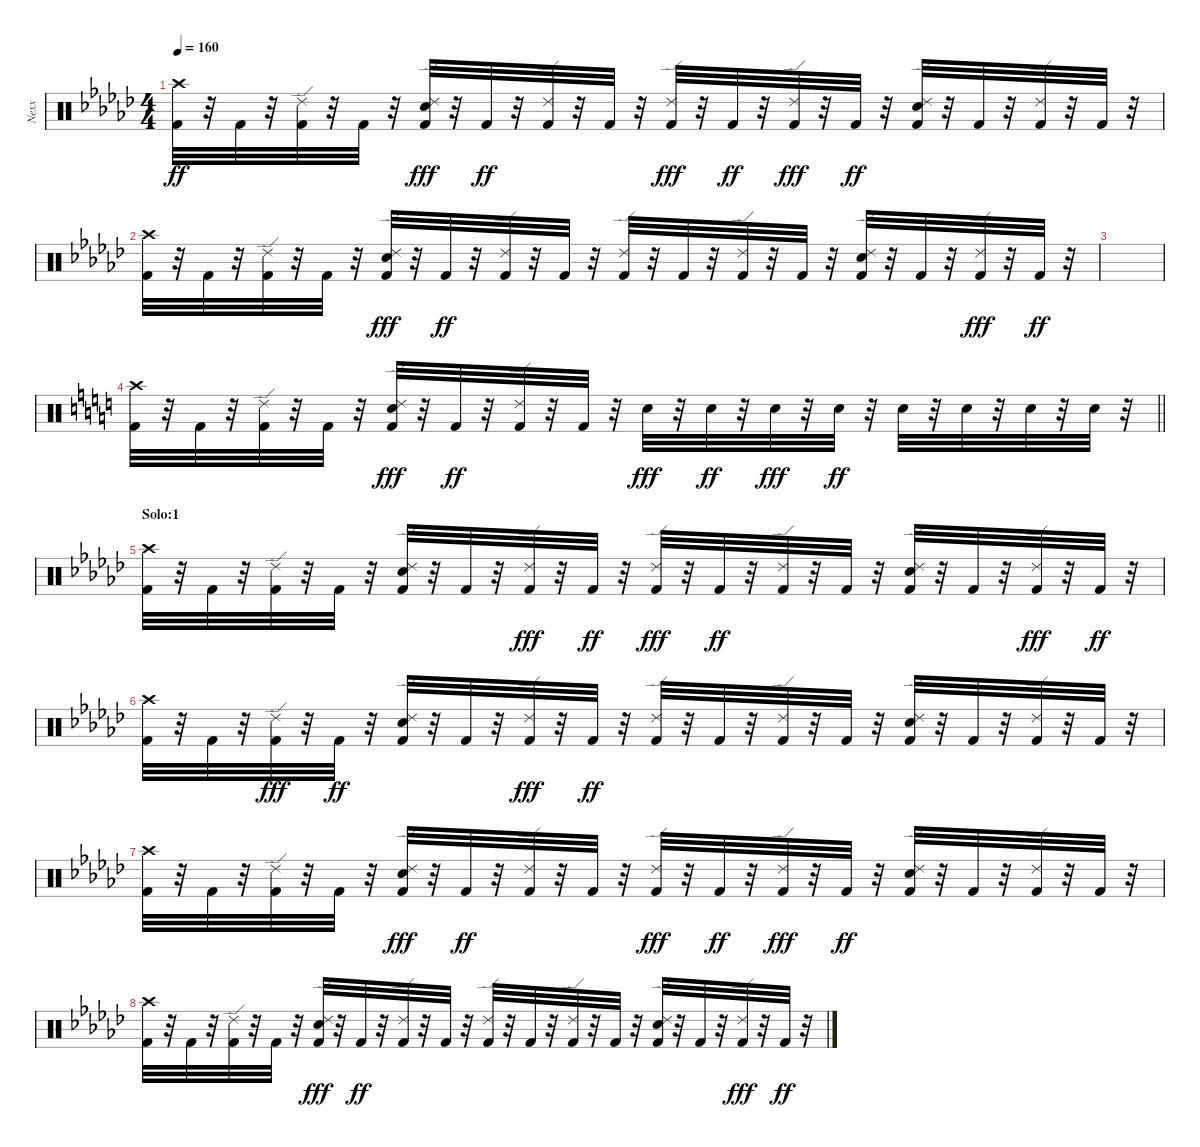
\track ("Nexx" "Nexx") {instrument percussion}
\staff {score}
\articulation defaults
\ts (4 4)
\tempo 160
\clef neutral
\ks ebminor
("Crash high (hit)" "Kick (hit) 2").32{dy ff} r.32 "Kick (hit) 2".32 r.32 ("Ride (edge) 2" "Kick (hit) 2").32 r.32 "Kick (hit) 2".32 r.32 ("Kick (hit) 2" "Electric Snare (hit)" "Ride (edge) 2").32{dy fff} r.32 "Kick (hit) 2".32{dy ff} r.32 ("Ride (edge) 2" "Kick (hit) 2").32 r.32 "Kick (hit) 2".32 r.32 ("Kick (hit) 2" "Ride (edge) 2").32{dy fff} r.32 "Kick (hit) 2".32{dy ff} r.32 ("Kick (hit) 2" "Ride (edge) 2").32{dy fff} r.32 "Kick (hit) 2".32{dy ff} r.32 ("Ride (edge) 2" "Electric Snare (hit)" "Kick (hit) 2").32 r.32 "Kick (hit) 2".32 r.32 ("Ride (edge) 2" "Kick (hit) 2").32 r.32 "Kick (hit) 2".32 r.32 |
("Kick (hit) 2" "Crash high (hit)").32 r.32 "Kick (hit) 2".32 r.32 ("Ride (edge) 2" "Kick (hit) 2").32 r.32 "Kick (hit) 2".32 r.32 ("Electric Snare (hit)" "Kick (hit) 2" "Ride (edge) 2").32{dy fff} r.32 "Kick (hit) 2".32{dy ff} r.32 ("Ride (edge) 2" "Kick (hit) 2").32 r.32 "Kick (hit) 2".32 r.32 ("Ride (edge) 2" "Kick (hit) 2").32 r.32 "Kick (hit) 2".32 r.32 ("Ride (edge) 2" "Kick (hit) 2").32 r.32 "Kick (hit) 2".32 r.32 ("Kick (hit) 2" "Ride (edge) 2" "Electric Snare (hit)").32 r.32 "Kick (hit) 2".32 r.32 ("Kick (hit) 2" "Ride (edge) 2").32{dy fff} r.32 "Kick (hit) 2".32{dy ff} r.32 |
|
\barLineRight lightlight
\ks c
("Kick (hit) 2" "Crash high (hit)").32 r.32 "Kick (hit) 2".32 r.32 ("Ride (edge) 2" "Kick (hit) 2").32 r.32 "Kick (hit) 2".32 r.32 ("Electric Snare (hit)" "Kick (hit) 2" "Ride (edge) 2").32{dy fff} r.32 "Kick (hit) 2".32{dy ff} r.32 ("Ride (edge) 2" "Kick (hit) 2").32 r.32 "Kick (hit) 2".32 r.32 "Electric Snare (hit)".32{dy fff} r.32 "Electric Snare (hit)".32{dy ff} r.32 "Electric Snare (hit)".32{dy fff} r.32 "Electric Snare (hit)".32{dy ff} r.32 "Electric Snare (hit)".32 r.32 "Electric Snare (hit)".32 r.32 "Electric Snare (hit)".32 r.32 "Electric Snare (hit)".32 r.32 |
\section ("" "Solo:1")
\ks ebminor
("Crash high (hit)" "Kick (hit) 2").32{volume 13} r.32 "Kick (hit) 2".32 r.32 ("Ride (edge) 2" "Kick (hit) 2").32 r.32 "Kick (hit) 2".32 r.32 ("Kick (hit) 2" "Ride (edge) 2" "Electric Snare (hit)").32 r.32 "Kick (hit) 2".32 r.32 ("Kick (hit) 2" "Ride (edge) 2").32{dy fff} r.32 "Kick (hit) 2".32{dy ff} r.32 ("Kick (hit) 2" "Ride (edge) 2").32{dy fff} r.32 "Kick (hit) 2".32{dy ff} r.32 ("Ride (edge) 2" "Kick (hit) 2").32 r.32 "Kick (hit) 2".32 r.32 ("Electric Snare (hit)" "Ride (edge) 2" "Kick (hit) 2").32 r.32 "Kick (hit) 2".32 r.32 ("Kick (hit) 2" "Ride (edge) 2").32{dy fff} r.32 "Kick (hit) 2".32{dy ff} r.32 |
("Kick (hit) 2" "Crash high (hit)").32 r.32 "Kick (hit) 2".32 r.32 ("Kick (hit) 2" "Ride (edge) 2").32{dy fff} r.32 "Kick (hit) 2".32{dy ff} r.32 ("Electric Snare (hit)" "Ride (edge) 2" "Kick (hit) 2").32 r.32 "Kick (hit) 2".32 r.32 ("Kick (hit) 2" "Ride (edge) 2").32{dy fff} r.32 "Kick (hit) 2".32{dy ff} r.32 ("Ride (edge) 2" "Kick (hit) 2").32 r.32 "Kick (hit) 2".32 r.32 ("Ride (edge) 2" "Kick (hit) 2").32 r.32 "Kick (hit) 2".32 r.32 ("Kick (hit) 2" "Ride (edge) 2" "Electric Snare (hit)").32 r.32 "Kick (hit) 2".32 r.32 ("Ride (edge) 2" "Kick (hit) 2").32 r.32 "Kick (hit) 2".32 r.32 |
("Crash high (hit)" "Kick (hit) 2").32 r.32 "Kick (hit) 2".32 r.32 ("Ride (edge) 2" "Kick (hit) 2").32 r.32 "Kick (hit) 2".32 r.32 ("Kick (hit) 2" "Electric Snare (hit)" "Ride (edge) 2").32{dy fff} r.32 "Kick (hit) 2".32{dy ff} r.32 ("Ride (edge) 2" "Kick (hit) 2").32 r.32 "Kick (hit) 2".32 r.32 ("Kick (hit) 2" "Ride (edge) 2").32{dy fff} r.32 "Kick (hit) 2".32{dy ff} r.32 ("Kick (hit) 2" "Ride (edge) 2").32{dy fff} r.32 "Kick (hit) 2".32{dy ff} r.32 ("Ride (edge) 2" "Electric Snare (hit)" "Kick (hit) 2").32 r.32 "Kick (hit) 2".32 r.32 ("Ride (edge) 2" "Kick (hit) 2").32 r.32 "Kick (hit) 2".32 r.32 |
("Kick (hit) 2" "Crash high (hit)").32 r.32 "Kick (hit) 2".32 r.32 ("Ride (edge) 2" "Kick (hit) 2").32 r.32 "Kick (hit) 2".32 r.32 ("Electric Snare (hit)" "Kick (hit) 2" "Ride (edge) 2").32{dy fff} r.32 "Kick (hit) 2".32{dy ff} r.32 ("Ride (edge) 2" "Kick (hit) 2").32 r.32 "Kick (hit) 2".32 r.32 ("Ride (edge) 2" "Kick (hit) 2").32 r.32 "Kick (hit) 2".32 r.32 ("Ride (edge) 2" "Kick (hit) 2").32 r.32 "Kick (hit) 2".32 r.32 ("Kick (hit) 2" "Ride (edge) 2" "Electric Snare (hit)").32 r.32 "Kick (hit) 2".32 r.32 ("Kick (hit) 2" "Ride (edge) 2").32{dy fff} r.32 "Kick (hit) 2".32{dy ff} r.32
